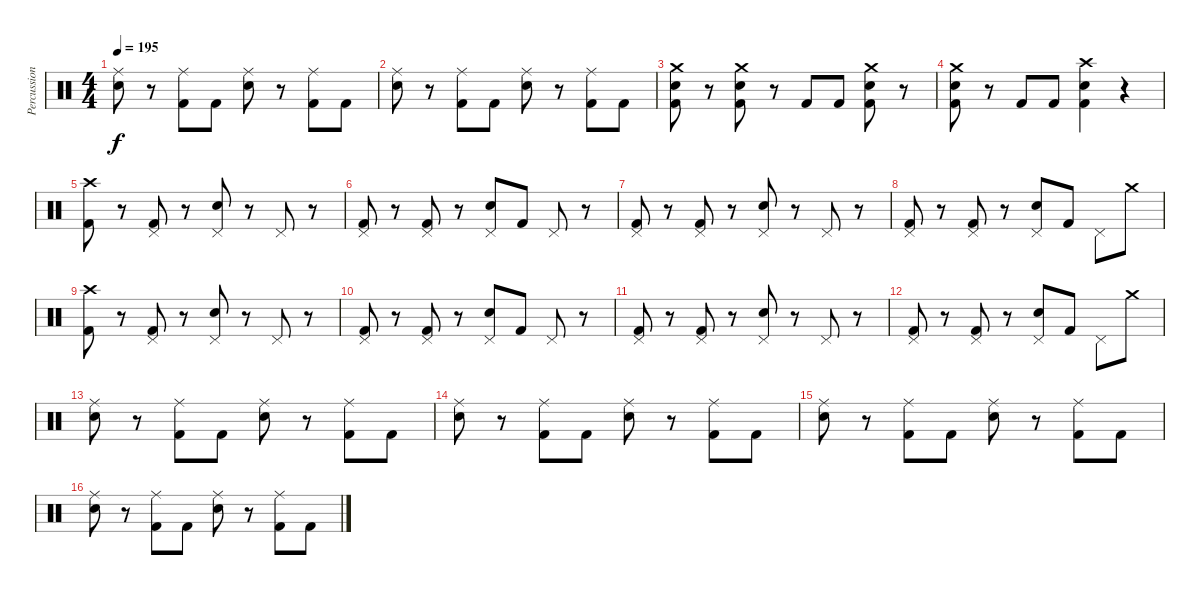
\track ("Percussion" "Percussion") {instrument percussion}
\staff {score}
\articulation defaults
\ts (4 4)
\tempo 195
\clef neutral
\ks c
("Ride (middle)" "Electric Snare (hit)").8{dy f} r.8 ("Ride (middle)" "Kick (hit) 2").8 "Kick (hit) 2".8 ("Ride (middle)" "Electric Snare (hit)").8 r.8 ("Ride (middle)" "Kick (hit) 2").8 "Kick (hit) 2".8 |
("Ride (middle)" "Electric Snare (hit)").8 r.8 ("Ride (middle)" "Kick (hit) 2").8 "Kick (hit) 2".8 ("Ride (middle)" "Electric Snare (hit)").8 r.8 ("Ride (middle)" "Kick (hit) 2").8 "Kick (hit) 2".8 |
("Crash medium (hit)" "Electric Snare (hit)" "Kick (hit) 2").8 r.8 ("Crash medium (hit)" "Electric Snare (hit)" "Kick (hit) 2").8 r.8 "Kick (hit) 2".8 "Kick (hit) 2".8 ("Crash medium (hit)" "Electric Snare (hit)" "Kick (hit) 2").8 r.8 |
("Crash medium (hit)" "Electric Snare (hit)" "Kick (hit) 2").8 r.8 "Kick (hit) 2".8 "Kick (hit) 2".8 ("Crash high (hit)" "Electric Snare (hit)" "Kick (hit) 2").4 r.4 |
("Crash high (hit)" "Kick (hit) 2").8 r.8 ("Pedal Hi-Hat (hit)" "Kick (hit) 2").8 r.8 ("Pedal Hi-Hat (hit)" "Electric Snare (hit)").8 r.8 "Pedal Hi-Hat (hit)".8 r.8 |
("Pedal Hi-Hat (hit)" "Kick (hit) 2").8 r.8 ("Pedal Hi-Hat (hit)" "Kick (hit) 2").8 r.8 ("Pedal Hi-Hat (hit)" "Electric Snare (hit)").8 "Kick (hit) 2".8 "Pedal Hi-Hat (hit)".8 r.8 |
("Pedal Hi-Hat (hit)" "Kick (hit) 2").8 r.8 ("Pedal Hi-Hat (hit)" "Kick (hit) 2").8 r.8 ("Pedal Hi-Hat (hit)" "Electric Snare (hit)").8 r.8 "Pedal Hi-Hat (hit)".8 r.8 |
("Pedal Hi-Hat (hit)" "Kick (hit) 2").8 r.8 ("Pedal Hi-Hat (hit)" "Kick (hit) 2").8 r.8 ("Pedal Hi-Hat (hit)" "Electric Snare (hit)").8 "Kick (hit) 2".8 "Pedal Hi-Hat (hit)".8 "Crash medium (hit)".8 |
("Crash high (hit)" "Kick (hit) 2").8 r.8 ("Pedal Hi-Hat (hit)" "Kick (hit) 2").8 r.8 ("Pedal Hi-Hat (hit)" "Electric Snare (hit)").8 r.8 "Pedal Hi-Hat (hit)".8 r.8 |
("Pedal Hi-Hat (hit)" "Kick (hit) 2").8 r.8 ("Pedal Hi-Hat (hit)" "Kick (hit) 2").8 r.8 ("Pedal Hi-Hat (hit)" "Electric Snare (hit)").8 "Kick (hit) 2".8 "Pedal Hi-Hat (hit)".8 r.8 |
("Pedal Hi-Hat (hit)" "Kick (hit) 2").8 r.8 ("Pedal Hi-Hat (hit)" "Kick (hit) 2").8 r.8 ("Pedal Hi-Hat (hit)" "Electric Snare (hit)").8 r.8 "Pedal Hi-Hat (hit)".8 r.8 |
("Pedal Hi-Hat (hit)" "Kick (hit) 2").8 r.8 ("Pedal Hi-Hat (hit)" "Kick (hit) 2").8 r.8 ("Pedal Hi-Hat (hit)" "Electric Snare (hit)").8 "Kick (hit) 2".8 "Pedal Hi-Hat (hit)".8 "Crash medium (hit)".8 |
("Ride (middle)" "Electric Snare (hit)").8 r.8 ("Ride (middle)" "Kick (hit) 2").8 "Kick (hit) 2".8 ("Ride (middle)" "Electric Snare (hit)").8 r.8 ("Ride (middle)" "Kick (hit) 2").8 "Kick (hit) 2".8 |
("Ride (middle)" "Electric Snare (hit)").8 r.8 ("Ride (middle)" "Kick (hit) 2").8 "Kick (hit) 2".8 ("Ride (middle)" "Electric Snare (hit)").8 r.8 ("Ride (middle)" "Kick (hit) 2").8 "Kick (hit) 2".8 |
("Ride (middle)" "Electric Snare (hit)").8 r.8 ("Ride (middle)" "Kick (hit) 2").8 "Kick (hit) 2".8 ("Ride (middle)" "Electric Snare (hit)").8 r.8 ("Ride (middle)" "Kick (hit) 2").8 "Kick (hit) 2".8 |
("Ride (middle)" "Electric Snare (hit)").8 r.8 ("Ride (middle)" "Kick (hit) 2").8 "Kick (hit) 2".8 ("Ride (middle)" "Electric Snare (hit)").8 r.8 ("Ride (middle)" "Kick (hit) 2").8 "Kick (hit) 2".8
